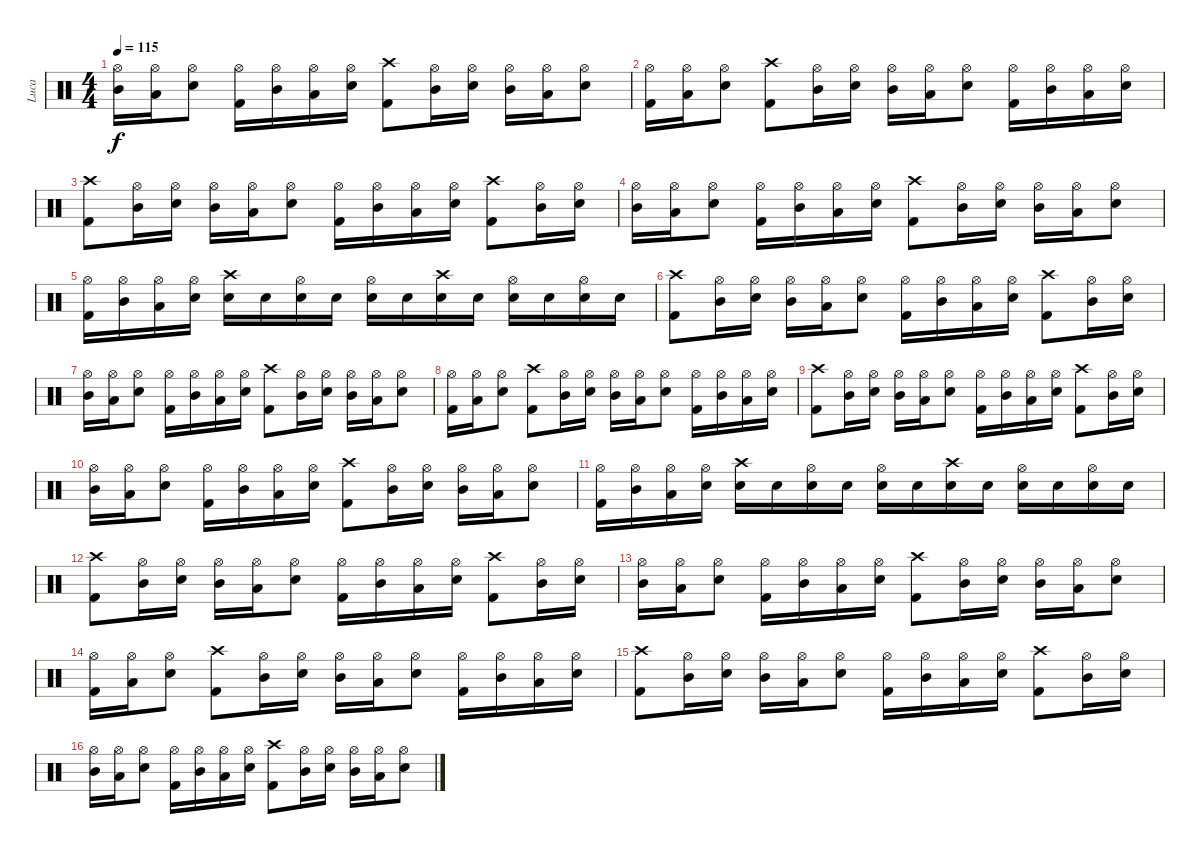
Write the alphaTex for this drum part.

\track ("Luca" "Luca") {instrument percussion}
\staff {score}
\articulation defaults
\ts (4 4)
\tempo 115
\clef neutral
\ks c
("Hi-Hat (open)" "Mid Tom (hit)").16{dy f} ("Hi-Hat (open)" "Low Floor Tom (hit)").16 ("Hi-Hat (open)" "Snare (hit) 2").8 ("Hi-Hat (open)" "Kick (hit) 2").16 ("Hi-Hat (open)" "Mid Tom (hit)").16 ("Hi-Hat (open)" "Low Floor Tom (hit)").16 ("Hi-Hat (open)" "Snare (hit) 2").16 ("Crash high (hit)" "Kick (hit) 2").8 ("Hi-Hat (open)" "Mid Tom (hit)").16 ("Hi-Hat (open)" "Snare (hit) 2").16 ("Hi-Hat (open)" "Mid Tom (hit)").16 ("Hi-Hat (open)" "Low Floor Tom (hit)").16 ("Hi-Hat (open)" "Snare (hit) 2").8 |
("Hi-Hat (open)" "Kick (hit) 2").16 ("Hi-Hat (open)" "Low Floor Tom (hit)").16 ("Hi-Hat (open)" "Snare (hit) 2").8 ("Crash high (hit)" "Kick (hit) 2").8 ("Hi-Hat (open)" "Mid Tom (hit)").16 ("Hi-Hat (open)" "Snare (hit) 2").16 ("Hi-Hat (open)" "Mid Tom (hit)").16 ("Hi-Hat (open)" "Low Floor Tom (hit)").16 ("Hi-Hat (open)" "Snare (hit) 2").8 ("Hi-Hat (open)" "Kick (hit) 2").16 ("Hi-Hat (open)" "Mid Tom (hit)").16 ("Hi-Hat (open)" "Low Floor Tom (hit)").16 ("Hi-Hat (open)" "Snare (hit) 2").16 |
("Crash high (hit)" "Kick (hit) 2").8 ("Hi-Hat (open)" "Mid Tom (hit)").16 ("Hi-Hat (open)" "Snare (hit) 2").16 ("Hi-Hat (open)" "Mid Tom (hit)").16 ("Hi-Hat (open)" "Low Floor Tom (hit)").16 ("Hi-Hat (open)" "Snare (hit) 2").8 ("Hi-Hat (open)" "Kick (hit) 2").16 ("Hi-Hat (open)" "Mid Tom (hit)").16 ("Hi-Hat (open)" "Low Floor Tom (hit)").16 ("Hi-Hat (open)" "Snare (hit) 2").16 ("Crash high (hit)" "Kick (hit) 2").8 ("Hi-Hat (open)" "Mid Tom (hit)").16 ("Hi-Hat (open)" "Snare (hit) 2").16 |
("Hi-Hat (open)" "Mid Tom (hit)").16 ("Hi-Hat (open)" "Low Floor Tom (hit)").16 ("Hi-Hat (open)" "Snare (hit) 2").8 ("Hi-Hat (open)" "Kick (hit) 2").16 ("Hi-Hat (open)" "Mid Tom (hit)").16 ("Hi-Hat (open)" "Low Floor Tom (hit)").16 ("Hi-Hat (open)" "Snare (hit) 2").16 ("Crash high (hit)" "Kick (hit) 2").8 ("Hi-Hat (open)" "Mid Tom (hit)").16 ("Hi-Hat (open)" "Snare (hit) 2").16 ("Hi-Hat (open)" "Mid Tom (hit)").16 ("Hi-Hat (open)" "Low Floor Tom (hit)").16 ("Hi-Hat (open)" "Snare (hit) 2").8 |
("Hi-Hat (open)" "Kick (hit) 2").16 ("Hi-Hat (open)" "Mid Tom (hit)").16 ("Hi-Hat (open)" "Low Floor Tom (hit)").16 ("Hi-Hat (open)" "Snare (hit) 2").16 ("Crash high (hit)" "Snare (hit) 2").16 "Snare (hit) 2".16 ("Hi-Hat (open)" "Snare (hit) 2").16 "Snare (hit) 2".16 ("Hi-Hat (open)" "Snare (hit) 2").16 "Snare (hit) 2".16 ("Crash high (hit)" "Snare (hit) 2").16 "Snare (hit) 2".16 ("Hi-Hat (open)" "Snare (hit) 2").16 "Snare (hit) 2".16 ("Hi-Hat (open)" "Snare (hit) 2").16 "Snare (hit) 2".16 |
("Crash high (hit)" "Kick (hit) 2").8 ("Hi-Hat (open)" "Mid Tom (hit)").16 ("Hi-Hat (open)" "Snare (hit) 2").16 ("Hi-Hat (open)" "Mid Tom (hit)").16 ("Hi-Hat (open)" "Low Floor Tom (hit)").16 ("Hi-Hat (open)" "Snare (hit) 2").8 ("Hi-Hat (open)" "Kick (hit) 2").16 ("Hi-Hat (open)" "Mid Tom (hit)").16 ("Hi-Hat (open)" "Low Floor Tom (hit)").16 ("Hi-Hat (open)" "Snare (hit) 2").16 ("Crash high (hit)" "Kick (hit) 2").8 ("Hi-Hat (open)" "Mid Tom (hit)").16 ("Hi-Hat (open)" "Snare (hit) 2").16 |
("Hi-Hat (open)" "Mid Tom (hit)").16 ("Hi-Hat (open)" "Low Floor Tom (hit)").16 ("Hi-Hat (open)" "Snare (hit) 2").8 ("Hi-Hat (open)" "Kick (hit) 2").16 ("Hi-Hat (open)" "Mid Tom (hit)").16 ("Hi-Hat (open)" "Low Floor Tom (hit)").16 ("Hi-Hat (open)" "Snare (hit) 2").16 ("Crash high (hit)" "Kick (hit) 2").8 ("Hi-Hat (open)" "Mid Tom (hit)").16 ("Hi-Hat (open)" "Snare (hit) 2").16 ("Hi-Hat (open)" "Mid Tom (hit)").16 ("Hi-Hat (open)" "Low Floor Tom (hit)").16 ("Hi-Hat (open)" "Snare (hit) 2").8 |
("Hi-Hat (open)" "Kick (hit) 2").16 ("Hi-Hat (open)" "Low Floor Tom (hit)").16 ("Hi-Hat (open)" "Snare (hit) 2").8 ("Crash high (hit)" "Kick (hit) 2").8 ("Hi-Hat (open)" "Mid Tom (hit)").16 ("Hi-Hat (open)" "Snare (hit) 2").16 ("Hi-Hat (open)" "Mid Tom (hit)").16 ("Hi-Hat (open)" "Low Floor Tom (hit)").16 ("Hi-Hat (open)" "Snare (hit) 2").8 ("Hi-Hat (open)" "Kick (hit) 2").16 ("Hi-Hat (open)" "Mid Tom (hit)").16 ("Hi-Hat (open)" "Low Floor Tom (hit)").16 ("Hi-Hat (open)" "Snare (hit) 2").16 |
("Crash high (hit)" "Kick (hit) 2").8 ("Hi-Hat (open)" "Mid Tom (hit)").16 ("Hi-Hat (open)" "Snare (hit) 2").16 ("Hi-Hat (open)" "Mid Tom (hit)").16 ("Hi-Hat (open)" "Low Floor Tom (hit)").16 ("Hi-Hat (open)" "Snare (hit) 2").8 ("Hi-Hat (open)" "Kick (hit) 2").16 ("Hi-Hat (open)" "Mid Tom (hit)").16 ("Hi-Hat (open)" "Low Floor Tom (hit)").16 ("Hi-Hat (open)" "Snare (hit) 2").16 ("Crash high (hit)" "Kick (hit) 2").8 ("Hi-Hat (open)" "Mid Tom (hit)").16 ("Hi-Hat (open)" "Snare (hit) 2").16 |
("Hi-Hat (open)" "Mid Tom (hit)").16 ("Hi-Hat (open)" "Low Floor Tom (hit)").16 ("Hi-Hat (open)" "Snare (hit) 2").8 ("Hi-Hat (open)" "Kick (hit) 2").16 ("Hi-Hat (open)" "Mid Tom (hit)").16 ("Hi-Hat (open)" "Low Floor Tom (hit)").16 ("Hi-Hat (open)" "Snare (hit) 2").16 ("Crash high (hit)" "Kick (hit) 2").8 ("Hi-Hat (open)" "Mid Tom (hit)").16 ("Hi-Hat (open)" "Snare (hit) 2").16 ("Hi-Hat (open)" "Mid Tom (hit)").16 ("Hi-Hat (open)" "Low Floor Tom (hit)").16 ("Hi-Hat (open)" "Snare (hit) 2").8 |
("Hi-Hat (open)" "Kick (hit) 2").16 ("Hi-Hat (open)" "Mid Tom (hit)").16 ("Hi-Hat (open)" "Low Floor Tom (hit)").16 ("Hi-Hat (open)" "Snare (hit) 2").16 ("Crash high (hit)" "Snare (hit) 2").16 "Snare (hit) 2".16 ("Hi-Hat (open)" "Snare (hit) 2").16 "Snare (hit) 2".16 ("Hi-Hat (open)" "Snare (hit) 2").16 "Snare (hit) 2".16 ("Crash high (hit)" "Snare (hit) 2").16 "Snare (hit) 2".16 ("Hi-Hat (open)" "Snare (hit) 2").16 "Snare (hit) 2".16 ("Hi-Hat (open)" "Snare (hit) 2").16 "Snare (hit) 2".16 |
("Crash high (hit)" "Kick (hit) 2").8 ("Hi-Hat (open)" "Mid Tom (hit)").16 ("Hi-Hat (open)" "Snare (hit) 2").16 ("Hi-Hat (open)" "Mid Tom (hit)").16 ("Hi-Hat (open)" "Low Floor Tom (hit)").16 ("Hi-Hat (open)" "Snare (hit) 2").8 ("Hi-Hat (open)" "Kick (hit) 2").16 ("Hi-Hat (open)" "Mid Tom (hit)").16 ("Hi-Hat (open)" "Low Floor Tom (hit)").16 ("Hi-Hat (open)" "Snare (hit) 2").16 ("Crash high (hit)" "Kick (hit) 2").8 ("Hi-Hat (open)" "Mid Tom (hit)").16 ("Hi-Hat (open)" "Snare (hit) 2").16 |
("Hi-Hat (open)" "Mid Tom (hit)").16 ("Hi-Hat (open)" "Low Floor Tom (hit)").16 ("Hi-Hat (open)" "Snare (hit) 2").8 ("Hi-Hat (open)" "Kick (hit) 2").16 ("Hi-Hat (open)" "Mid Tom (hit)").16 ("Hi-Hat (open)" "Low Floor Tom (hit)").16 ("Hi-Hat (open)" "Snare (hit) 2").16 ("Crash high (hit)" "Kick (hit) 2").8 ("Hi-Hat (open)" "Mid Tom (hit)").16 ("Hi-Hat (open)" "Snare (hit) 2").16 ("Hi-Hat (open)" "Mid Tom (hit)").16 ("Hi-Hat (open)" "Low Floor Tom (hit)").16 ("Hi-Hat (open)" "Snare (hit) 2").8 |
("Hi-Hat (open)" "Kick (hit) 2").16 ("Hi-Hat (open)" "Low Floor Tom (hit)").16 ("Hi-Hat (open)" "Snare (hit) 2").8 ("Crash high (hit)" "Kick (hit) 2").8 ("Hi-Hat (open)" "Mid Tom (hit)").16 ("Hi-Hat (open)" "Snare (hit) 2").16 ("Hi-Hat (open)" "Mid Tom (hit)").16 ("Hi-Hat (open)" "Low Floor Tom (hit)").16 ("Hi-Hat (open)" "Snare (hit) 2").8 ("Hi-Hat (open)" "Kick (hit) 2").16 ("Hi-Hat (open)" "Mid Tom (hit)").16 ("Hi-Hat (open)" "Low Floor Tom (hit)").16 ("Hi-Hat (open)" "Snare (hit) 2").16 |
("Crash high (hit)" "Kick (hit) 2").8 ("Hi-Hat (open)" "Mid Tom (hit)").16 ("Hi-Hat (open)" "Snare (hit) 2").16 ("Hi-Hat (open)" "Mid Tom (hit)").16 ("Hi-Hat (open)" "Low Floor Tom (hit)").16 ("Hi-Hat (open)" "Snare (hit) 2").8 ("Hi-Hat (open)" "Kick (hit) 2").16 ("Hi-Hat (open)" "Mid Tom (hit)").16 ("Hi-Hat (open)" "Low Floor Tom (hit)").16 ("Hi-Hat (open)" "Snare (hit) 2").16 ("Crash high (hit)" "Kick (hit) 2").8 ("Hi-Hat (open)" "Mid Tom (hit)").16 ("Hi-Hat (open)" "Snare (hit) 2").16 |
("Hi-Hat (open)" "Mid Tom (hit)").16 ("Hi-Hat (open)" "Low Floor Tom (hit)").16 ("Hi-Hat (open)" "Snare (hit) 2").8 ("Hi-Hat (open)" "Kick (hit) 2").16 ("Hi-Hat (open)" "Mid Tom (hit)").16 ("Hi-Hat (open)" "Low Floor Tom (hit)").16 ("Hi-Hat (open)" "Snare (hit) 2").16 ("Crash high (hit)" "Kick (hit) 2").8 ("Hi-Hat (open)" "Mid Tom (hit)").16 ("Hi-Hat (open)" "Snare (hit) 2").16 ("Hi-Hat (open)" "Mid Tom (hit)").16 ("Hi-Hat (open)" "Low Floor Tom (hit)").16 ("Hi-Hat (open)" "Snare (hit) 2").8
